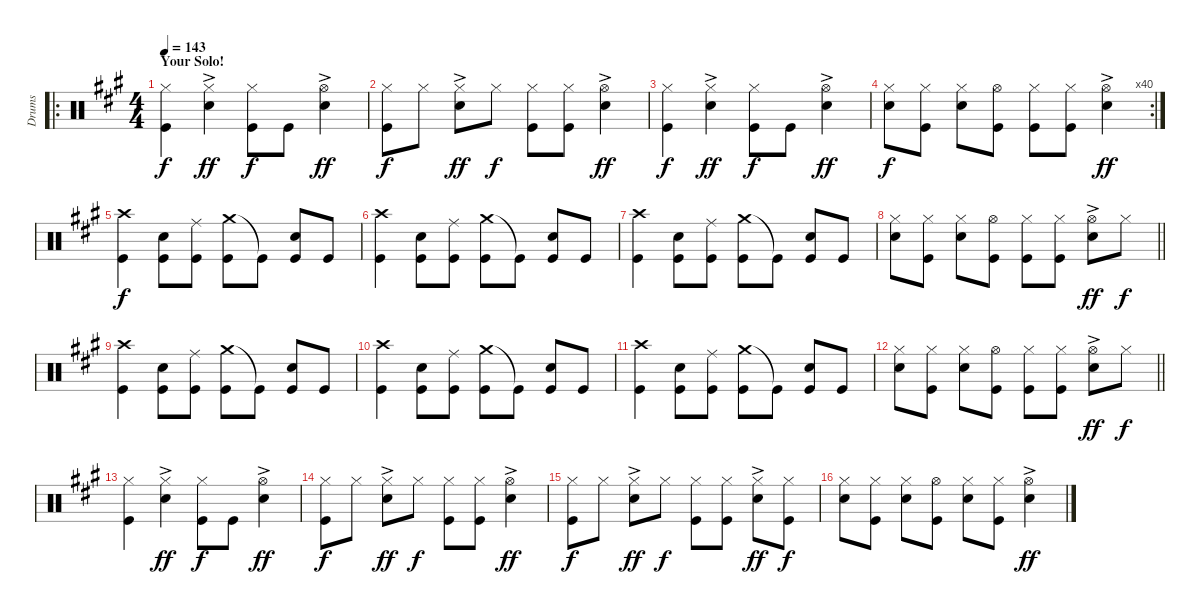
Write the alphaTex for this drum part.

\track ("Drums" "Drums") {instrument percussion}
\staff {score}
\articulation defaults
\ro
\ts (4 4)
\section ("" "Your Solo! ")
\tempo 143
\clef neutral
\ks a
("Hi-Hat (closed)" "Kick (hit)").4{dy f volume 5} ("Hi-Hat (closed)" "Snare (hit) 2"{ac}).4{dy ff} ("Hi-Hat (closed)" "Kick (hit)").8{dy f} "Kick (hit)".8 ("Hi-Hat (open)"{ac} "Snare (hit) 2").4{dy ff} |
("Hi-Hat (closed)" "Kick (hit)").8{dy f} "Hi-Hat (closed)".8 ("Hi-Hat (closed)" "Snare (hit) 2"{ac}).8{dy ff} "Hi-Hat (closed)".8{dy f} ("Hi-Hat (closed)" "Kick (hit)").8 ("Hi-Hat (closed)" "Kick (hit)").8 ("Hi-Hat (open)"{ac} "Snare (hit) 2").4{dy ff} |
("Hi-Hat (closed)" "Kick (hit)").4{dy f volume 5} ("Hi-Hat (closed)" "Snare (hit) 2"{ac}).4{dy ff} ("Hi-Hat (closed)" "Kick (hit)").8{dy f} "Kick (hit)".8 ("Hi-Hat (open)"{ac} "Snare (hit) 2").4{dy ff} |
\rc 40
("Hi-Hat (closed)" "Snare (hit) 2").8{dy f} ("Hi-Hat (closed)" "Kick (hit)").8 ("Hi-Hat (closed)" "Snare (hit) 2").8 ("Hi-Hat (open)" "Kick (hit)").8 ("Hi-Hat (closed)" "Kick (hit)").8 ("Hi-Hat (closed)" "Kick (hit)").8 ("Hi-Hat (open)" "Snare (hit) 2"{ac}).4{dy ff} |
("Crash high (hit)" "Kick (hit)").4{dy f volume 13} ("Snare (hit) 2" "Kick (hit)").8 ("Ride (middle)" "Kick (hit)").8 ("Crash medium (hit)" "Kick (hit)").8 "Kick (hit)"{t}.8 ("Snare (hit) 2" "Kick (hit)").8 "Kick (hit)".8 |
("Crash high (hit)" "Kick (hit)").4 ("Snare (hit) 2" "Kick (hit)").8 ("Ride (middle)" "Kick (hit)").8 ("Crash medium (hit)" "Kick (hit)").8 "Kick (hit)"{t}.8 ("Snare (hit) 2" "Kick (hit)").8 "Kick (hit)".8 |
("Crash high (hit)" "Kick (hit)").4 ("Snare (hit) 2" "Kick (hit)").8 ("Ride (middle)" "Kick (hit)").8 ("Crash medium (hit)" "Kick (hit)").8 "Kick (hit)"{t}.8 ("Snare (hit) 2" "Kick (hit)").8 "Kick (hit)".8 |
\barLineRight lightlight
("Hi-Hat (closed)" "Snare (hit) 2").8 ("Hi-Hat (closed)" "Kick (hit)").8 ("Hi-Hat (closed)" "Snare (hit) 2").8 ("Hi-Hat (open)" "Kick (hit)").8 ("Hi-Hat (closed)" "Kick (hit)").8 ("Hi-Hat (closed)" "Kick (hit)").8 ("Hi-Hat (open)" "Snare (hit) 2"{ac}).8{dy ff} "Hi-Hat (closed)".8{dy f} |
("Crash high (hit)" "Kick (hit)").4 ("Snare (hit) 2" "Kick (hit)").8 ("Ride (middle)" "Kick (hit)").8 ("Crash medium (hit)" "Kick (hit)").8 "Kick (hit)"{t}.8 ("Snare (hit) 2" "Kick (hit)").8 "Kick (hit)".8 |
("Crash high (hit)" "Kick (hit)").4 ("Snare (hit) 2" "Kick (hit)").8 ("Ride (middle)" "Kick (hit)").8 ("Crash medium (hit)" "Kick (hit)").8 "Kick (hit)"{t}.8 ("Snare (hit) 2" "Kick (hit)").8 "Kick (hit)".8 |
("Crash high (hit)" "Kick (hit)").4 ("Snare (hit) 2" "Kick (hit)").8 ("Ride (middle)" "Kick (hit)").8 ("Crash medium (hit)" "Kick (hit)").8 "Kick (hit)"{t}.8 ("Snare (hit) 2" "Kick (hit)").8 "Kick (hit)".8 |
\barLineRight lightlight
("Hi-Hat (closed)" "Snare (hit) 2").8 ("Hi-Hat (closed)" "Kick (hit)").8 ("Hi-Hat (closed)" "Snare (hit) 2").8 ("Hi-Hat (open)" "Kick (hit)").8 ("Hi-Hat (closed)" "Kick (hit)").8 ("Hi-Hat (closed)" "Kick (hit)").8 ("Hi-Hat (open)" "Snare (hit) 2"{ac}).8{dy ff} "Hi-Hat (closed)".8{dy f} |
("Hi-Hat (closed)" "Kick (hit)").4{volume 9} ("Hi-Hat (closed)" "Snare (hit) 2"{ac}).4{dy ff} ("Hi-Hat (closed)" "Kick (hit)").8{dy f} "Kick (hit)".8 ("Hi-Hat (open)"{ac} "Snare (hit) 2").4{dy ff} |
("Hi-Hat (closed)" "Kick (hit)").8{dy f} "Hi-Hat (closed)".8 ("Hi-Hat (closed)" "Snare (hit) 2"{ac}).8{dy ff} "Hi-Hat (closed)".8{dy f} ("Hi-Hat (closed)" "Kick (hit)").8 ("Hi-Hat (closed)" "Kick (hit)").8 ("Hi-Hat (open)"{ac} "Snare (hit) 2").4{dy ff} |
("Hi-Hat (closed)" "Kick (hit)").8{dy f} "Hi-Hat (closed)".8 ("Hi-Hat (closed)" "Snare (hit) 2"{ac}).8{dy ff} "Hi-Hat (closed)".8{dy f} ("Hi-Hat (closed)" "Kick (hit)").8 ("Hi-Hat (closed)" "Kick (hit)").8 ("Hi-Hat (closed)"{ac} "Snare (hit) 2").8{dy ff} ("Hi-Hat (closed)" "Kick (hit)").8{dy f} |
("Hi-Hat (closed)" "Snare (hit) 2").8 ("Hi-Hat (closed)" "Kick (hit)").8 ("Hi-Hat (closed)" "Snare (hit) 2").8 ("Hi-Hat (open)" "Kick (hit)").8 ("Hi-Hat (closed)" "Snare (hit) 2").8 ("Hi-Hat (closed)" "Kick (hit)").8 ("Hi-Hat (open)" "Snare (hit) 2"{ac}).4{dy ff}
